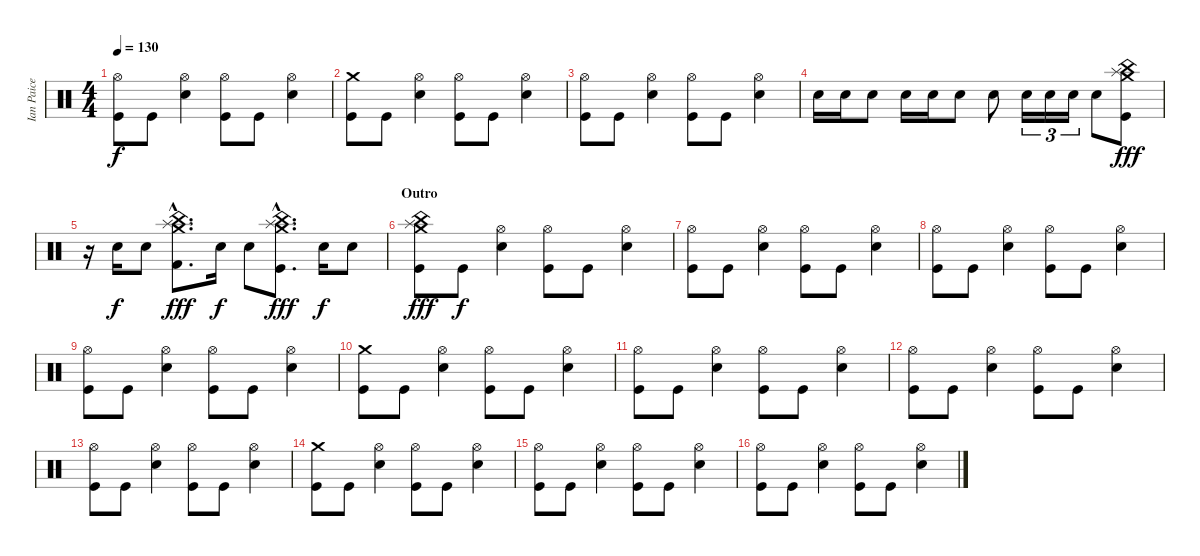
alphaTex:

\track ("Ian Paice - Drums" "Ian Paice ") {instrument percussion}
\staff {score}
\articulation defaults
\ts (4 4)
\tempo 130
\clef neutral
\ks c
("Hi-Hat (open)" "Kick (hit)").8{dy f} "Kick (hit)".8 ("Hi-Hat (open)" "Snare (hit) 2").4 ("Hi-Hat (open)" "Kick (hit)").8 "Kick (hit)".8 ("Hi-Hat (open)" "Snare (hit) 2").4 |
("Crash medium (hit)" "Kick (hit)").8 "Kick (hit)".8 ("Hi-Hat (open)" "Snare (hit) 2").4 ("Hi-Hat (open)" "Kick (hit)").8 "Kick (hit)".8 ("Hi-Hat (open)" "Snare (hit) 2").4 |
("Hi-Hat (open)" "Kick (hit)").8 "Kick (hit)".8 ("Hi-Hat (open)" "Snare (hit) 2").4 ("Hi-Hat (open)" "Kick (hit)").8 "Kick (hit)".8 ("Hi-Hat (open)" "Snare (hit) 2").4 |
"Snare (hit) 2".16 "Snare (hit) 2".16 "Snare (hit) 2".8 "Snare (hit) 2".16 "Snare (hit) 2".16 "Snare (hit) 2".8 "Snare (hit) 2".8 "Snare (hit) 2".16{tu (3 2)} "Snare (hit) 2".16{tu (3 2)} "Snare (hit) 2".16{tu (3 2)} "Snare (hit) 2".8 ("Splash (hit)" "Crash medium (hit)" "China (hit)" "Kick (hit)").8{dy fff} |
r.16 "Snare (hit) 2".16{dy f} "Snare (hit) 2".8 ("Splash (hit)"{hac} "Crash medium (hit)"{hac} "China (hit)"{hac} "Kick (hit) 2"{hac}).8{d dy fff} "Snare (hit) 2".16{dy f} "Snare (hit) 2".8 ("Splash (hit)"{hac} "Crash medium (hit)"{hac} "China (hit)"{hac} "Kick (hit)"{hac}).8{d dy fff} "Snare (hit) 2".16{dy f} "Snare (hit) 2".8 |
\section ("" "Outro")
("Crash medium (hit)" "Kick (hit)" "China (hit)" "Splash (hit)").8{dy fff} "Kick (hit)".8{dy f} ("Hi-Hat (open)" "Snare (hit) 2").4 ("Hi-Hat (open)" "Kick (hit)").8 "Kick (hit)".8 ("Hi-Hat (open)" "Snare (hit) 2").4 |
("Hi-Hat (open)" "Kick (hit)").8 "Kick (hit)".8 ("Hi-Hat (open)" "Snare (hit) 2").4 ("Hi-Hat (open)" "Kick (hit)").8 "Kick (hit)".8 ("Hi-Hat (open)" "Snare (hit) 2").4 |
("Hi-Hat (open)" "Kick (hit)").8 "Kick (hit)".8 ("Hi-Hat (open)" "Snare (hit) 2").4 ("Hi-Hat (open)" "Kick (hit)").8 "Kick (hit)".8 ("Hi-Hat (open)" "Snare (hit) 2").4 |
("Hi-Hat (open)" "Kick (hit)").8 "Kick (hit)".8 ("Hi-Hat (open)" "Snare (hit) 2").4 ("Hi-Hat (open)" "Kick (hit)").8 "Kick (hit)".8 ("Hi-Hat (open)" "Snare (hit) 2").4 |
("Crash medium (hit)" "Kick (hit)").8 "Kick (hit)".8 ("Hi-Hat (open)" "Snare (hit) 2").4 ("Hi-Hat (open)" "Kick (hit)").8 "Kick (hit)".8 ("Hi-Hat (open)" "Snare (hit) 2").4 |
("Hi-Hat (open)" "Kick (hit)").8 "Kick (hit)".8 ("Hi-Hat (open)" "Snare (hit) 2").4 ("Hi-Hat (open)" "Kick (hit)").8 "Kick (hit)".8 ("Hi-Hat (open)" "Snare (hit) 2").4 |
("Hi-Hat (open)" "Kick (hit)").8 "Kick (hit)".8 ("Hi-Hat (open)" "Snare (hit) 2").4 ("Hi-Hat (open)" "Kick (hit)").8 "Kick (hit)".8 ("Hi-Hat (open)" "Snare (hit) 2").4 |
("Hi-Hat (open)" "Kick (hit)").8 "Kick (hit)".8 ("Hi-Hat (open)" "Snare (hit) 2").4 ("Hi-Hat (open)" "Kick (hit)").8 "Kick (hit)".8 ("Hi-Hat (open)" "Snare (hit) 2").4 |
("Crash medium (hit)" "Kick (hit)").8 "Kick (hit)".8 ("Hi-Hat (open)" "Snare (hit) 2").4 ("Hi-Hat (open)" "Kick (hit)").8 "Kick (hit)".8 ("Hi-Hat (open)" "Snare (hit) 2").4 |
("Hi-Hat (open)" "Kick (hit)").8 "Kick (hit)".8 ("Hi-Hat (open)" "Snare (hit) 2").4 ("Hi-Hat (open)" "Kick (hit)").8 "Kick (hit)".8 ("Hi-Hat (open)" "Snare (hit) 2").4 |
("Hi-Hat (open)" "Kick (hit)").8 "Kick (hit)".8 ("Hi-Hat (open)" "Snare (hit) 2").4 ("Hi-Hat (open)" "Kick (hit)").8 "Kick (hit)".8 ("Hi-Hat (open)" "Snare (hit) 2").4
